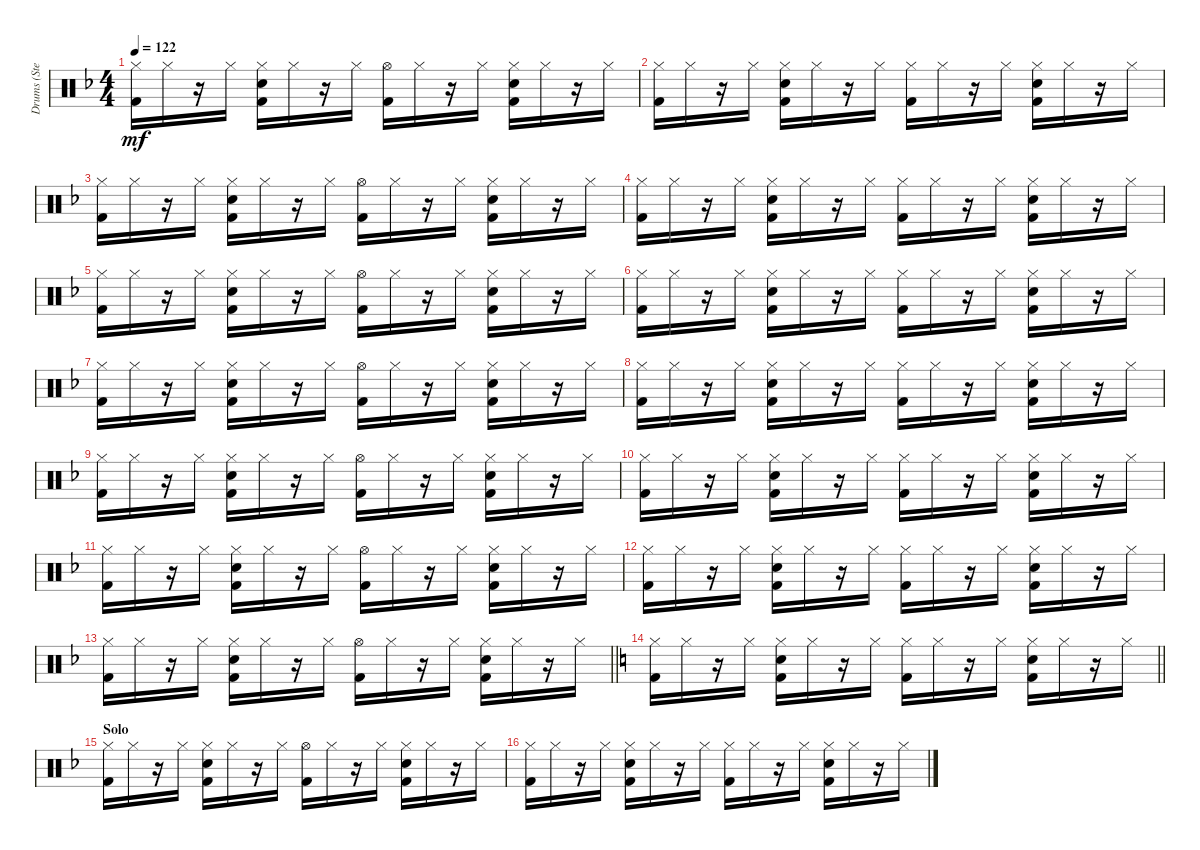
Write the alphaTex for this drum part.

\track ("Drums (Stephen Morris)" "Drums (Ste") {instrument percussion}
\staff {score}
\articulation defaults
\ts (4 4)
\tempo 122
\clef neutral
\ks f
("Kick (hit) 2" "Hi-Hat (closed)").16{dy mf} "Hi-Hat (closed)".16 r.16 "Hi-Hat (closed)".16 ("Kick (hit) 2" "Snare (hit) 2" "Hi-Hat (closed)").16 "Hi-Hat (closed)".16 r.16 "Hi-Hat (closed)".16 ("Kick (hit) 2" "Hi-Hat (open)").16 "Hi-Hat (closed)".16 r.16 "Hi-Hat (closed)".16 ("Hi-Hat (closed)" "Snare (hit) 2" "Kick (hit) 2").16 "Hi-Hat (closed)".16 r.16 "Hi-Hat (closed)".16 |
("Kick (hit) 2" "Hi-Hat (closed)").16 "Hi-Hat (closed)".16 r.16 "Hi-Hat (closed)".16 ("Kick (hit) 2" "Snare (hit) 2" "Hi-Hat (closed)").16 "Hi-Hat (closed)".16 r.16 "Hi-Hat (closed)".16 ("Kick (hit) 2" "Hi-Hat (closed)").16 "Hi-Hat (closed)".16 r.16 "Hi-Hat (closed)".16 ("Hi-Hat (closed)" "Snare (hit) 2" "Kick (hit) 2").16 "Hi-Hat (closed)".16 r.16 "Hi-Hat (closed)".16 |
("Hi-Hat (closed)" "Kick (hit) 2").16 "Hi-Hat (closed)".16 r.16 "Hi-Hat (closed)".16 ("Hi-Hat (closed)" "Snare (hit) 2" "Kick (hit) 2").16 "Hi-Hat (closed)".16 r.16 "Hi-Hat (closed)".16 ("Kick (hit) 2" "Hi-Hat (open)").16 "Hi-Hat (closed)".16 r.16 "Hi-Hat (closed)".16 ("Snare (hit) 2" "Kick (hit) 2" "Hi-Hat (closed)").16 "Hi-Hat (closed)".16 r.16 "Hi-Hat (closed)".16 |
("Hi-Hat (closed)" "Kick (hit) 2").16 "Hi-Hat (closed)".16 r.16 "Hi-Hat (closed)".16 ("Hi-Hat (closed)" "Snare (hit) 2" "Kick (hit) 2").16 "Hi-Hat (closed)".16 r.16 "Hi-Hat (closed)".16 ("Kick (hit) 2" "Hi-Hat (closed)").16 "Hi-Hat (closed)".16 r.16 "Hi-Hat (closed)".16 ("Hi-Hat (closed)" "Snare (hit) 2" "Kick (hit) 2").16 "Hi-Hat (closed)".16 r.16 "Hi-Hat (closed)".16 |
("Hi-Hat (closed)" "Kick (hit) 2").16 "Hi-Hat (closed)".16 r.16 "Hi-Hat (closed)".16 ("Hi-Hat (closed)" "Kick (hit) 2" "Snare (hit) 2").16 "Hi-Hat (closed)".16 r.16 "Hi-Hat (closed)".16 ("Kick (hit) 2" "Hi-Hat (open)").16 "Hi-Hat (closed)".16 r.16 "Hi-Hat (closed)".16 ("Hi-Hat (closed)" "Snare (hit) 2" "Kick (hit) 2").16 "Hi-Hat (closed)".16 r.16 "Hi-Hat (closed)".16 |
("Kick (hit) 2" "Hi-Hat (closed)").16 "Hi-Hat (closed)".16 r.16 "Hi-Hat (closed)".16 ("Hi-Hat (closed)" "Snare (hit) 2" "Kick (hit) 2").16 "Hi-Hat (closed)".16 r.16 "Hi-Hat (closed)".16 ("Kick (hit) 2" "Hi-Hat (closed)").16 "Hi-Hat (closed)".16 r.16 "Hi-Hat (closed)".16 ("Snare (hit) 2" "Kick (hit) 2" "Hi-Hat (closed)").16 "Hi-Hat (closed)".16 r.16 "Hi-Hat (closed)".16 |
("Kick (hit) 2" "Hi-Hat (closed)").16 "Hi-Hat (closed)".16 r.16 "Hi-Hat (closed)".16 ("Hi-Hat (closed)" "Snare (hit) 2" "Kick (hit) 2").16 "Hi-Hat (closed)".16 r.16 "Hi-Hat (closed)".16 ("Kick (hit) 2" "Hi-Hat (open)").16 "Hi-Hat (closed)".16 r.16 "Hi-Hat (closed)".16 ("Snare (hit) 2" "Kick (hit) 2" "Hi-Hat (closed)").16 "Hi-Hat (closed)".16 r.16 "Hi-Hat (closed)".16 |
("Kick (hit) 2" "Hi-Hat (closed)").16 "Hi-Hat (closed)".16 r.16 "Hi-Hat (closed)".16 ("Hi-Hat (closed)" "Snare (hit) 2" "Kick (hit) 2").16 "Hi-Hat (closed)".16 r.16 "Hi-Hat (closed)".16 ("Hi-Hat (closed)" "Kick (hit) 2").16 "Hi-Hat (closed)".16 r.16 "Hi-Hat (closed)".16 ("Hi-Hat (closed)" "Snare (hit) 2" "Kick (hit) 2").16 "Hi-Hat (closed)".16 r.16 "Hi-Hat (closed)".16 |
("Kick (hit) 2" "Hi-Hat (closed)").16 "Hi-Hat (closed)".16 r.16 "Hi-Hat (closed)".16 ("Snare (hit) 2" "Kick (hit) 2" "Hi-Hat (closed)").16 "Hi-Hat (closed)".16 r.16 "Hi-Hat (closed)".16 ("Hi-Hat (open)" "Kick (hit) 2").16 "Hi-Hat (closed)".16 r.16 "Hi-Hat (closed)".16 ("Hi-Hat (closed)" "Snare (hit) 2" "Kick (hit) 2").16 "Hi-Hat (closed)".16 r.16 "Hi-Hat (closed)".16 |
("Kick (hit) 2" "Hi-Hat (closed)").16 "Hi-Hat (closed)".16 r.16 "Hi-Hat (closed)".16 ("Hi-Hat (closed)" "Kick (hit) 2" "Snare (hit) 2").16 "Hi-Hat (closed)".16 r.16 "Hi-Hat (closed)".16 ("Hi-Hat (closed)" "Kick (hit) 2").16 "Hi-Hat (closed)".16 r.16 "Hi-Hat (closed)".16 ("Hi-Hat (closed)" "Snare (hit) 2" "Kick (hit) 2").16 "Hi-Hat (closed)".16 r.16 "Hi-Hat (closed)".16 |
("Kick (hit) 2" "Hi-Hat (closed)").16 "Hi-Hat (closed)".16 r.16 "Hi-Hat (closed)".16 ("Hi-Hat (closed)" "Snare (hit) 2" "Kick (hit) 2").16 "Hi-Hat (closed)".16 r.16 "Hi-Hat (closed)".16 ("Kick (hit) 2" "Hi-Hat (open)").16 "Hi-Hat (closed)".16 r.16 "Hi-Hat (closed)".16 ("Hi-Hat (closed)" "Snare (hit) 2" "Kick (hit) 2").16 "Hi-Hat (closed)".16 r.16 "Hi-Hat (closed)".16 |
("Kick (hit) 2" "Hi-Hat (closed)").16 "Hi-Hat (closed)".16 r.16 "Hi-Hat (closed)".16 ("Kick (hit) 2" "Snare (hit) 2" "Hi-Hat (closed)").16 "Hi-Hat (closed)".16 r.16 "Hi-Hat (closed)".16 ("Kick (hit) 2" "Hi-Hat (closed)").16 "Hi-Hat (closed)".16 r.16 "Hi-Hat (closed)".16 ("Hi-Hat (closed)" "Snare (hit) 2" "Kick (hit) 2").16 "Hi-Hat (closed)".16 r.16 "Hi-Hat (closed)".16 |
\barLineRight lightlight
("Kick (hit) 2" "Hi-Hat (closed)").16 "Hi-Hat (closed)".16 r.16 "Hi-Hat (closed)".16 ("Snare (hit) 2" "Kick (hit) 2" "Hi-Hat (closed)").16 "Hi-Hat (closed)".16 r.16 "Hi-Hat (closed)".16 ("Kick (hit) 2" "Hi-Hat (open)").16 "Hi-Hat (closed)".16 r.16 "Hi-Hat (closed)".16 ("Hi-Hat (closed)" "Snare (hit) 2" "Kick (hit) 2").16 "Hi-Hat (closed)".16 r.16 "Hi-Hat (closed)".16 |
\barLineRight lightlight
\ks c
("Hi-Hat (closed)" "Kick (hit) 2").16 "Hi-Hat (closed)".16 r.16 "Hi-Hat (closed)".16 ("Hi-Hat (closed)" "Snare (hit) 2" "Kick (hit) 2").16 "Hi-Hat (closed)".16 r.16 "Hi-Hat (closed)".16 ("Kick (hit) 2" "Hi-Hat (closed)").16 "Hi-Hat (closed)".16 r.16 "Hi-Hat (closed)".16 ("Kick (hit) 2" "Snare (hit) 2" "Hi-Hat (closed)").16 "Hi-Hat (closed)".16 r.16 "Hi-Hat (closed)".16 |
\section ("" "Solo")
\ks f
("Hi-Hat (closed)" "Kick (hit) 2").16 "Hi-Hat (closed)".16 r.16 "Hi-Hat (closed)".16 ("Hi-Hat (closed)" "Snare (hit) 2" "Kick (hit) 2").16 "Hi-Hat (closed)".16 r.16 "Hi-Hat (closed)".16 ("Kick (hit) 2" "Hi-Hat (open)").16 "Hi-Hat (closed)".16 r.16 "Hi-Hat (closed)".16 ("Hi-Hat (closed)" "Snare (hit) 2" "Kick (hit) 2").16 "Hi-Hat (closed)".16 r.16 "Hi-Hat (closed)".16 |
("Hi-Hat (closed)" "Kick (hit) 2").16 "Hi-Hat (closed)".16 r.16 "Hi-Hat (closed)".16 ("Hi-Hat (closed)" "Snare (hit) 2" "Kick (hit) 2").16 "Hi-Hat (closed)".16 r.16 "Hi-Hat (closed)".16 ("Kick (hit) 2" "Hi-Hat (closed)").16 "Hi-Hat (closed)".16 r.16 "Hi-Hat (closed)".16 ("Hi-Hat (closed)" "Snare (hit) 2" "Kick (hit) 2").16 "Hi-Hat (closed)".16 r.16 "Hi-Hat (closed)".16
